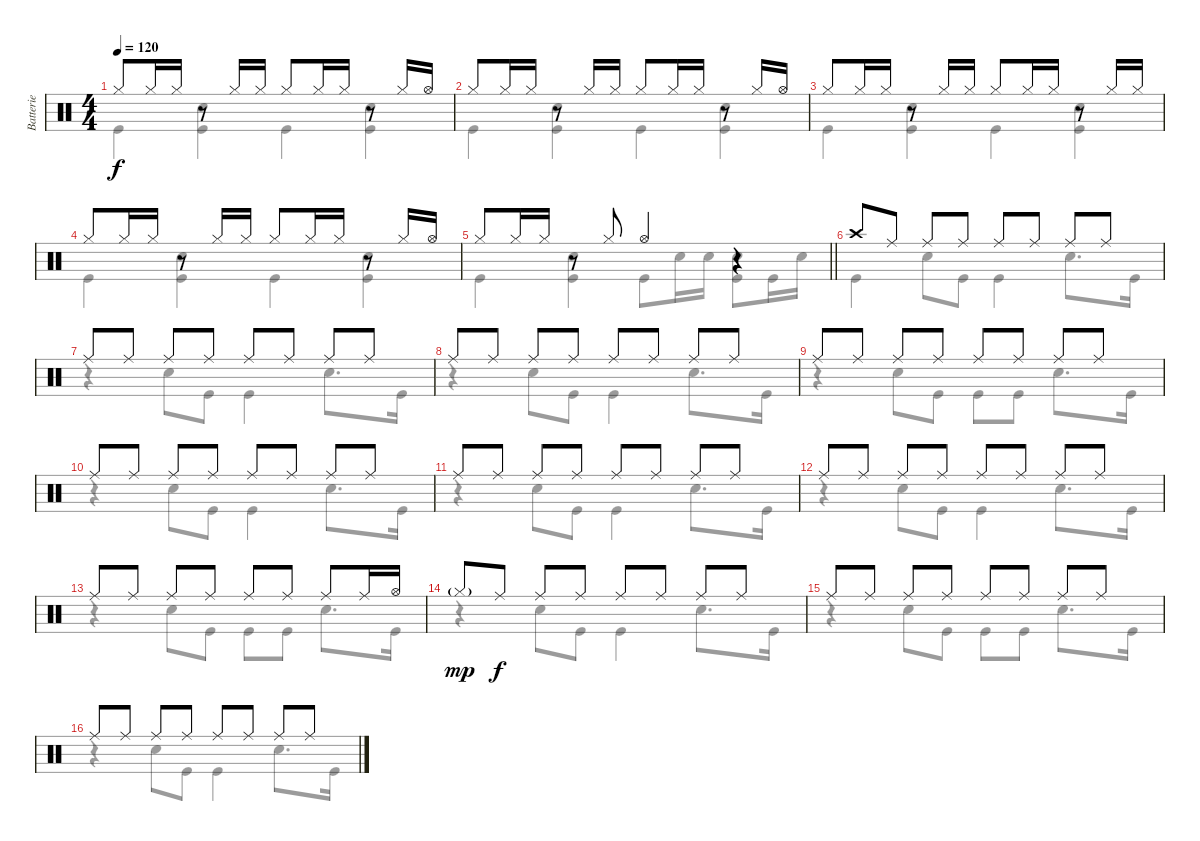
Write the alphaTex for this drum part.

\track ("Batterie" "Batterie") {instrument percussion}
\staff {score}
\articulation defaults
\voice
\ts (4 4)
\tempo 120
\clef neutral
\ks c "Hi-Hat (closed)".8{dy f} "Hi-Hat (closed)".16 "Hi-Hat (closed)".16
r.8 "Hi-Hat (closed)".16 "Hi-Hat (closed)".16 "Hi-Hat (closed)".8 "Hi-Hat (closed)".16 "Hi-Hat (closed)".16 r.8 "Hi-Hat (closed)".16 "Hi-Hat (open)".16 |
"Hi-Hat (closed)".8 "Hi-Hat (closed)".16 "Hi-Hat (closed)".16 r.8 "Hi-Hat (closed)".16 "Hi-Hat (closed)".16 "Hi-Hat (closed)".8 "Hi-Hat (closed)".16 "Hi-Hat (closed)".16 r.8 "Hi-Hat (closed)".16 "Hi-Hat (open)".16 |
"Hi-Hat (closed)".8 "Hi-Hat (closed)".16 "Hi-Hat (closed)".16 r.8 "Hi-Hat (closed)".16 "Hi-Hat (closed)".16 "Hi-Hat (closed)".8 "Hi-Hat (closed)".16 "Hi-Hat (closed)".16 r.8 "Hi-Hat (closed)".16 "Hi-Hat (closed)".16 |
"Hi-Hat (closed)".8 "Hi-Hat (closed)".16 "Hi-Hat (closed)".16 r.8 "Hi-Hat (closed)".16 "Hi-Hat (closed)".16 "Hi-Hat (closed)".8 "Hi-Hat (closed)".16 "Hi-Hat (closed)".16 r.8 "Hi-Hat (closed)".16 "Hi-Hat (open)".16 |
\barLineRight lightlight "Hi-Hat (closed)".8 "Hi-Hat (closed)".16 "Hi-Hat (closed)".16
r.8 "Hi-Hat (closed)".8 "Hi-Hat (open)".4 r.4 |
"Crash high (hit)".8 "Ride (middle)".8 "Ride (middle)".8 "Ride (middle)".8 "Ride (middle)".8 "Ride (middle)".8 "Ride (middle)".8 "Ride (middle)".8 |
"Ride (middle)".8 "Ride (middle)".8 "Ride (middle)".8 "Ride (middle)".8 "Ride (middle)".8 "Ride (middle)".8 "Ride (middle)".8 "Ride (middle)".8 |
"Ride (middle)".8 "Ride (middle)".8 "Ride (middle)".8 "Ride (middle)".8 "Ride (middle)".8 "Ride (middle)".8 "Ride (middle)".8 "Ride (middle)".8 |
"Ride (middle)".8 "Ride (middle)".8 "Ride (middle)".8 "Ride (middle)".8 "Ride (middle)".8 "Ride (middle)".8 "Ride (middle)".8 "Ride (middle)".8 |
"Ride (middle)".8 "Ride (middle)".8 "Ride (middle)".8 "Ride (middle)".8 "Ride (middle)".8 "Ride (middle)".8 "Ride (middle)".8 "Ride (middle)".8 |
"Ride (middle)".8 "Ride (middle)".8 "Ride (middle)".8 "Ride (middle)".8 "Ride (middle)".8 "Ride (middle)".8 "Ride (middle)".8 "Ride (middle)".8 |
"Ride (middle)".8 "Ride (middle)".8 "Ride (middle)".8 "Ride (middle)".8 "Ride (middle)".8 "Ride (middle)".8 "Ride (middle)".8 "Ride (middle)".8 |
"Ride (middle)".8 "Ride (middle)".8 "Ride (middle)".8 "Ride (middle)".8 "Ride (middle)".8 "Ride (middle)".8 "Ride (middle)".8 "Ride (middle)".16 "Hi-Hat (open)".16 |
"Hi-Hat (closed)"{g}.8{dy mp} "Ride (middle)".8{dy f} "Ride (middle)".8 "Ride (middle)".8 "Ride (middle)".8 "Ride (middle)".8 "Ride (middle)".8 "Ride (middle)".8 |
"Ride (middle)".8 "Ride (middle)".8 "Ride (middle)".8 "Ride (middle)".8 "Ride (middle)".8 "Ride (middle)".8 "Ride (middle)".8 "Ride (middle)".8 |
"Ride (middle)".8 "Ride (middle)".8 "Ride (middle)".8 "Ride (middle)".8 "Ride (middle)".8 "Ride (middle)".8 "Ride (middle)".8 "Ride (middle)".8
\voice
\clef neutral
\ottava regular
\simile none
\ks c "Kick (hit)".4{dy f}
("Snare (hit) 2" "Kick (hit)").4 "Kick (hit)".4 ("Snare (hit) 2" "Kick (hit)").4 |
"Kick (hit)".4 ("Snare (hit) 2" "Kick (hit)").4 "Kick (hit)".4 ("Snare (hit) 2" "Kick (hit)").4 |
"Kick (hit)".4 ("Snare (hit) 2" "Kick (hit)").4 "Kick (hit)".4 ("Snare (hit) 2" "Kick (hit)").4 |
"Kick (hit)".4 ("Snare (hit) 2" "Kick (hit)").4 "Kick (hit)".4 ("Snare (hit) 2" "Kick (hit)").4 |
\barLineRight lightlight "Kick (hit)".4
("Snare (hit) 2" "Kick (hit)").4 "Kick (hit)".8 "Snare (hit) 2".16 "Snare (hit) 2".16 ("Snare (hit) 2" "Kick (hit)").8 "Kick (hit)".16 "Snare (hit) 2".16 |
"Kick (hit)".4 "Snare (hit) 2".8 "Kick (hit)".8 "Kick (hit)".4 "Snare (hit) 2".8{d} "Kick (hit)".16 |
r.4 "Snare (hit) 2".8 "Kick (hit)".8 "Kick (hit)".4 "Snare (hit) 2".8{d} "Kick (hit)".16 |
r.4 "Snare (hit) 2".8 "Kick (hit)".8 "Kick (hit)".4 "Snare (hit) 2".8{d} "Kick (hit)".16 |
r.4 "Snare (hit) 2".8 "Kick (hit)".8 "Kick (hit)".8 "Kick (hit)".8 "Snare (hit) 2".8{d} "Kick (hit)".16 |
r.4 "Snare (hit) 2".8 "Kick (hit)".8 "Kick (hit)".4 "Snare (hit) 2".8{d} "Kick (hit)".16 |
r.4 "Snare (hit) 2".8 "Kick (hit)".8 "Kick (hit)".4 "Snare (hit) 2".8{d} "Kick (hit)".16 |
r.4 "Snare (hit) 2".8 "Kick (hit)".8 "Kick (hit)".4 "Snare (hit) 2".8{d} "Kick (hit)".16 |
r.4 "Snare (hit) 2".8 "Kick (hit)".8 "Kick (hit)".8 "Kick (hit)".8 "Snare (hit) 2".8{d} "Kick (hit)".16 |
r.4 "Snare (hit) 2".8 "Kick (hit)".8 "Kick (hit)".4 "Snare (hit) 2".8{d} "Kick (hit)".16 |
r.4 "Snare (hit) 2".8 "Kick (hit)".8 "Kick (hit)".8 "Kick (hit)".8 "Snare (hit) 2".8{d} "Kick (hit)".16 |
r.4 "Snare (hit) 2".8 "Kick (hit)".8 "Kick (hit)".4 "Snare (hit) 2".8{d} "Kick (hit)".16
